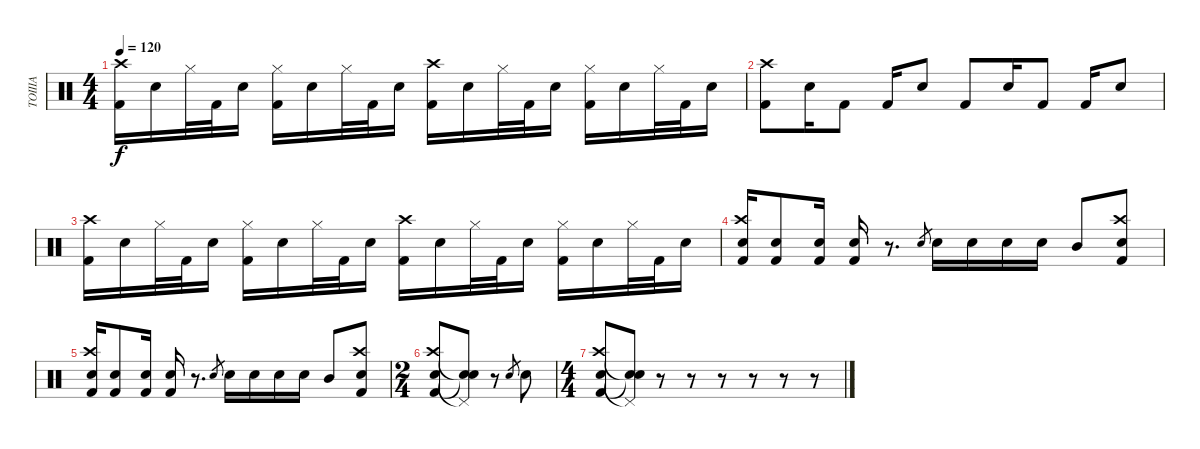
\track ("TOIIIA" "TOIIIA") {instrument percussion}
\staff
\articulation defaults
\ts (4 4)
\tempo 120
\clef neutral
\ks c
("Kick (hit) 2" "Crash high (hit)").16{dy f} "Electric Snare (hit)".16 "Hi-Hat (closed)".32 "Kick (hit) 2".32 "Electric Snare (hit)".16 ("Kick (hit) 2" "Hi-Hat (closed)").16 "Electric Snare (hit)".16 "Hi-Hat (closed)".32 "Kick (hit) 2".32 "Electric Snare (hit)".16 ("Kick (hit) 2" "Crash high (hit)").16 "Electric Snare (hit)".16 "Hi-Hat (closed)".32 "Kick (hit) 2".32 "Electric Snare (hit)".16 ("Kick (hit) 2" "Hi-Hat (closed)").16 "Electric Snare (hit)".16 "Hi-Hat (closed)".32 "Kick (hit) 2".32 "Electric Snare (hit)".16 |
("Crash high (hit)" "Kick (hit) 2").8 "Electric Snare (hit)".16 "Kick (hit) 2".8 "Kick (hit) 2".16 "Electric Snare (hit)".8 "Kick (hit) 2".8 "Electric Snare (hit)".16 "Kick (hit) 2".8 "Kick (hit) 2".16 "Electric Snare (hit)".8 |
("Kick (hit) 2" "Crash high (hit)").16 "Electric Snare (hit)".16 "Hi-Hat (closed)".32 "Kick (hit) 2".32 "Electric Snare (hit)".16 ("Kick (hit) 2" "Hi-Hat (closed)").16 "Electric Snare (hit)".16 "Hi-Hat (closed)".32 "Kick (hit) 2".32 "Electric Snare (hit)".16 ("Kick (hit) 2" "Crash high (hit)").16 "Electric Snare (hit)".16 "Hi-Hat (closed)".32 "Kick (hit) 2".32 "Electric Snare (hit)".16 ("Kick (hit) 2" "Hi-Hat (closed)").16 "Electric Snare (hit)".16 "Hi-Hat (closed)".32 "Kick (hit) 2".32 "Electric Snare (hit)".16 |
("Kick (hit) 2" "Crash high (hit)" "Electric Snare (hit)").16 ("Kick (hit) 2" "Electric Snare (hit)").8 ("Kick (hit) 2" "Electric Snare (hit)").16 ("Kick (hit) 2" "Electric Snare (hit)").16 r.8{d} "Electric Snare (hit)".8{gr} "Electric Snare (hit)".16 "Electric Snare (hit)".16 "Electric Snare (hit)".16 "Electric Snare (hit)".16 "Mid Tom (hit)".8 ("Kick (hit) 2" "Crash high (hit)" "Electric Snare (hit)").8 |
("Kick (hit) 2" "Crash high (hit)" "Electric Snare (hit)").16 ("Kick (hit) 2" "Electric Snare (hit)").8 ("Kick (hit) 2" "Electric Snare (hit)").16 ("Kick (hit) 2" "Electric Snare (hit)").16 r.8{d} "Electric Snare (hit)".8{gr} "Electric Snare (hit)".16 "Electric Snare (hit)".16 "Electric Snare (hit)".16 "Electric Snare (hit)".16 "Mid Tom (hit)".8 ("Kick (hit) 2" "Crash high (hit)" "Electric Snare (hit)").8 |
\ts (2 4)
("Electric Snare (hit)" "Crash high (hit)" "Kick (hit) 2").8 ("Pedal Hi-Hat (hit)"{t} "Snare (hit)"{t} "Snare (hit)"{t}).8 r.8 "Electric Snare (hit)".8{gr} "Electric Snare (hit)".8 |
\ts (4 4)
("Electric Snare (hit)" "Crash high (hit)" "Kick (hit) 2").8 ("Pedal Hi-Hat (hit)"{t} "Snare (hit)"{t} "Snare (hit)"{t}).8 r.8 r.8 r.8 r.8 r.8 r.8
